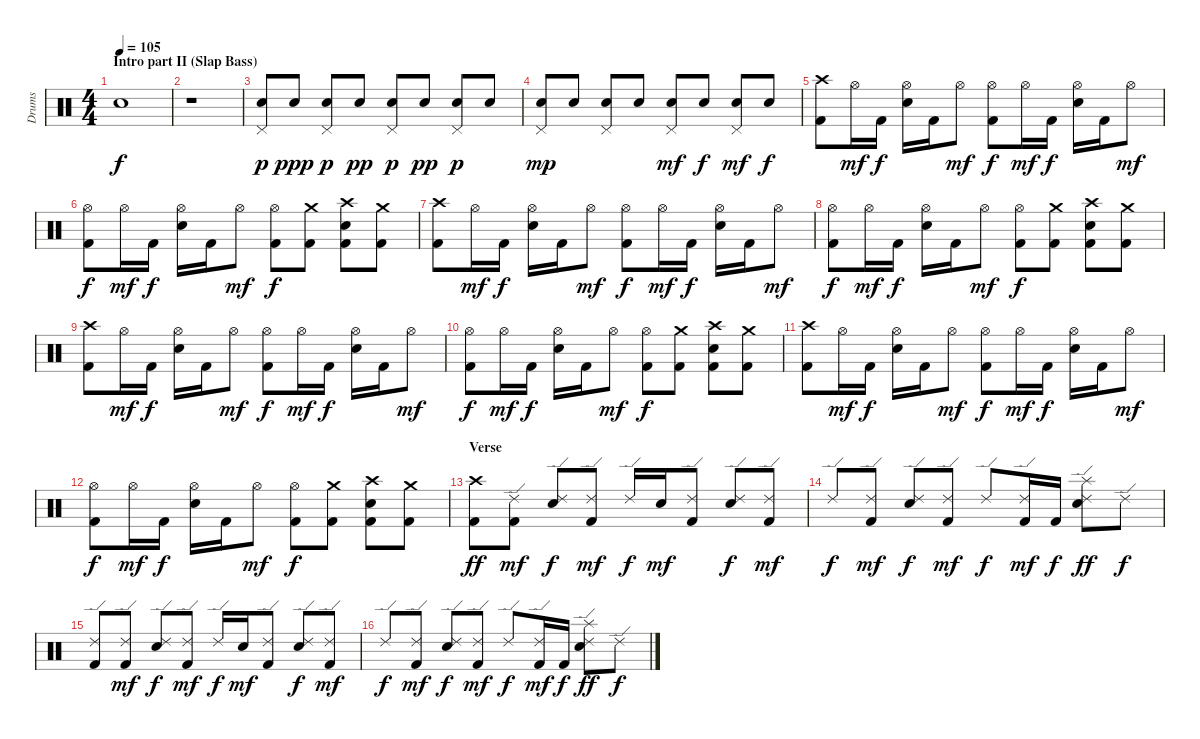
\track ("Drums" "Drums") {instrument percussion}
\staff {score}
\articulation defaults
\ts (4 4)
\section ("" "Intro part II (Slap Bass)")
\tempo 105
\clef neutral
\ks c "Snare (hit)"{t}.1{dy f}
|
r.1 |
("Snare (hit) 2" "Pedal Hi-Hat (hit)").8{dy p} "Snare (hit) 2".8{dy ppp} ("Snare (hit) 2" "Pedal Hi-Hat (hit)").8{dy p} "Snare (hit) 2".8{dy pp} ("Snare (hit) 2" "Pedal Hi-Hat (hit)").8{dy p} "Snare (hit) 2".8{dy pp} ("Snare (hit) 2" "Pedal Hi-Hat (hit)").8{dy p} "Snare (hit) 2".8 |
("Snare (hit) 2" "Pedal Hi-Hat (hit)").8{dy mp} "Snare (hit) 2".8 ("Snare (hit) 2" "Pedal Hi-Hat (hit)").8 "Snare (hit) 2".8 ("Snare (hit) 2" "Pedal Hi-Hat (hit)").8{dy mf} "Snare (hit) 2".8{dy f} ("Snare (hit) 2" "Pedal Hi-Hat (hit)").8{dy mf} "Snare (hit) 2".8{dy f} |
("Crash high (hit)" "Kick (hit) 2").8 "Hi-Hat (open)".16{dy mf} "Kick (hit) 2".16{dy f} ("Hi-Hat (open)" "Snare (hit) 2").16 "Kick (hit) 2".16 "Hi-Hat (open)".8{dy mf} ("Hi-Hat (open)" "Kick (hit) 2").8{dy f} "Hi-Hat (open)".16{dy mf} "Kick (hit) 2".16{dy f} ("Hi-Hat (open)" "Snare (hit) 2").16 "Kick (hit) 2".16 "Hi-Hat (open)".8{dy mf} |
("Hi-Hat (open)" "Kick (hit) 2").8{dy f} "Hi-Hat (open)".16{dy mf} "Kick (hit) 2".16{dy f} ("Hi-Hat (open)" "Snare (hit) 2").16 "Kick (hit) 2".16 "Hi-Hat (open)".8{dy mf} ("Hi-Hat (open)" "Kick (hit) 2").8{dy f} ("Crash medium (hit)" "Kick (hit) 2").8 ("Crash high (hit)" "Snare (hit) 2" "Kick (hit) 2").8 ("Crash medium (hit)" "Kick (hit) 2").8 |
("Crash high (hit)" "Kick (hit) 2").8 "Hi-Hat (open)".16{dy mf} "Kick (hit) 2".16{dy f} ("Hi-Hat (open)" "Snare (hit) 2").16 "Kick (hit) 2".16 "Hi-Hat (open)".8{dy mf} ("Hi-Hat (open)" "Kick (hit) 2").8{dy f} "Hi-Hat (open)".16{dy mf} "Kick (hit) 2".16{dy f} ("Hi-Hat (open)" "Snare (hit) 2").16 "Kick (hit) 2".16 "Hi-Hat (open)".8{dy mf} |
("Hi-Hat (open)" "Kick (hit) 2").8{dy f} "Hi-Hat (open)".16{dy mf} "Kick (hit) 2".16{dy f} ("Hi-Hat (open)" "Snare (hit) 2").16 "Kick (hit) 2".16 "Hi-Hat (open)".8{dy mf} ("Hi-Hat (open)" "Kick (hit) 2").8{dy f} ("Crash medium (hit)" "Kick (hit) 2").8 ("Crash high (hit)" "Snare (hit) 2" "Kick (hit) 2").8 ("Crash medium (hit)" "Kick (hit) 2").8 |
("Crash high (hit)" "Kick (hit) 2").8 "Hi-Hat (open)".16{dy mf} "Kick (hit) 2".16{dy f} ("Hi-Hat (open)" "Snare (hit) 2").16 "Kick (hit) 2".16 "Hi-Hat (open)".8{dy mf} ("Hi-Hat (open)" "Kick (hit) 2").8{dy f} "Hi-Hat (open)".16{dy mf} "Kick (hit) 2".16{dy f} ("Hi-Hat (open)" "Snare (hit) 2").16 "Kick (hit) 2".16 "Hi-Hat (open)".8{dy mf} |
("Hi-Hat (open)" "Kick (hit) 2").8{dy f} "Hi-Hat (open)".16{dy mf} "Kick (hit) 2".16{dy f} ("Hi-Hat (open)" "Snare (hit) 2").16 "Kick (hit) 2".16 "Hi-Hat (open)".8{dy mf} ("Hi-Hat (open)" "Kick (hit) 2").8{dy f} ("Crash medium (hit)" "Kick (hit) 2").8 ("Crash high (hit)" "Snare (hit) 2" "Kick (hit) 2").8 ("Crash medium (hit)" "Kick (hit) 2").8 |
("Crash high (hit)" "Kick (hit) 2").8 "Hi-Hat (open)".16{dy mf} "Kick (hit) 2".16{dy f} ("Hi-Hat (open)" "Snare (hit) 2").16 "Kick (hit) 2".16 "Hi-Hat (open)".8{dy mf} ("Hi-Hat (open)" "Kick (hit) 2").8{dy f} "Hi-Hat (open)".16{dy mf} "Kick (hit) 2".16{dy f} ("Hi-Hat (open)" "Snare (hit) 2").16 "Kick (hit) 2".16 "Hi-Hat (open)".8{dy mf} |
("Hi-Hat (open)" "Kick (hit) 2").8{dy f} "Hi-Hat (open)".16{dy mf} "Kick (hit) 2".16{dy f} ("Hi-Hat (open)" "Snare (hit) 2").16 "Kick (hit) 2".16 "Hi-Hat (open)".8{dy mf} ("Hi-Hat (open)" "Kick (hit) 2").8{dy f} ("Crash medium (hit)" "Kick (hit) 2").8 ("Crash high (hit)" "Snare (hit) 2" "Kick (hit) 2").8 ("Crash medium (hit)" "Kick (hit) 2").8 |
\section ("" "Verse")
("Crash high (hit)" "Kick (hit) 2").8{dy ff volume 11} ("Ride (edge) 2" "Kick (hit) 2").8{dy mf} ("Ride (edge) 2" "Snare (hit) 2").8{dy f} ("Ride (edge) 2" "Kick (hit) 2").8{dy mf} "Ride (edge) 2".16{dy f} "Snare (hit) 2".16{dy mf} ("Ride (edge) 2" "Kick (hit) 2").8 ("Ride (edge) 2" "Snare (hit) 2").8{dy f} ("Ride (edge) 2" "Kick (hit) 2").8{dy mf} |
"Ride (edge) 2".8{dy f} ("Ride (edge) 2" "Kick (hit) 2").8{dy mf} ("Ride (edge) 2" "Snare (hit) 2").8{dy f} ("Ride (edge) 2" "Kick (hit) 2").8{dy mf} "Ride (edge) 2".8{dy f} ("Ride (edge) 2" "Kick (hit) 2").16{dy mf} "Kick (hit) 2".16{dy f} ("Splash (hit)" "Ride (edge) 2" "Snare (hit) 2").8{dy ff} "Ride (edge) 2".8{dy f} |
("Ride (edge) 2" "Kick (hit) 2").8 ("Ride (edge) 2" "Kick (hit) 2").8{dy mf} ("Ride (edge) 2" "Snare (hit) 2").8{dy f} ("Ride (edge) 2" "Kick (hit) 2").8{dy mf} "Ride (edge) 2".16{dy f} "Snare (hit) 2".16{dy mf} ("Ride (edge) 2" "Kick (hit) 2").8 ("Ride (edge) 2" "Snare (hit) 2").8{dy f} ("Ride (edge) 2" "Kick (hit) 2").8{dy mf} |
"Ride (edge) 2".8{dy f} ("Ride (edge) 2" "Kick (hit) 2").8{dy mf} ("Ride (edge) 2" "Snare (hit) 2").8{dy f} ("Ride (edge) 2" "Kick (hit) 2").8{dy mf} "Ride (edge) 2".8{dy f} ("Ride (edge) 2" "Kick (hit) 2").16{dy mf} "Kick (hit) 2".16{dy f} ("Splash (hit)" "Ride (edge) 2" "Snare (hit) 2").8{dy ff} "Ride (edge) 2".8{dy f}
